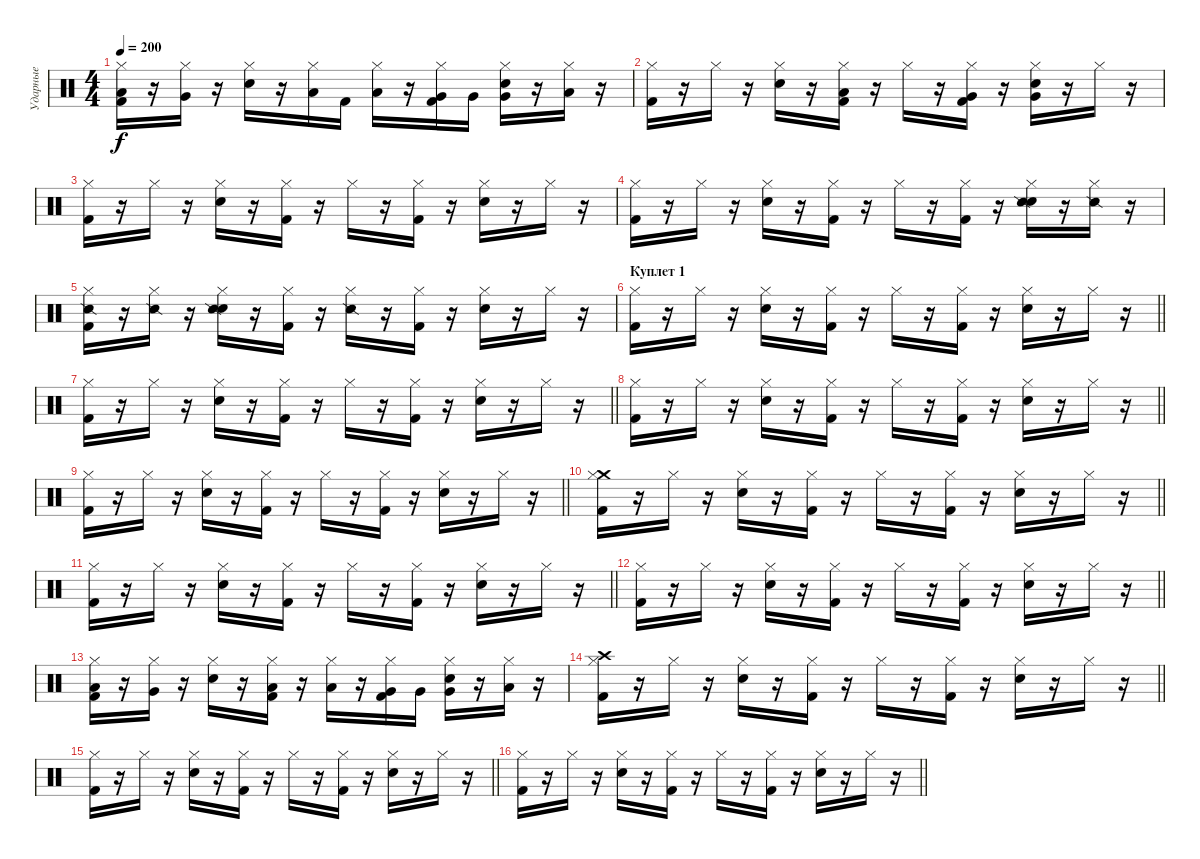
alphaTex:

\track ("Ударные" "Ударные") {instrument percussion}
\staff {score}
\articulation defaults
\ts (4 4)
\tempo 200
\clef neutral
\ks c
("Kick (hit) 2" "Low Floor Tom (hit)" "Hi-Hat (closed)").16{dy f} r.16 ("Very Low Tom (hit)" "Hi-Hat (closed)").16 r.16 ("Snare (hit) 2" "Hi-Hat (closed)").16 r.16 ("Low Floor Tom (hit)" "Hi-Hat (closed)").16 "Kick (hit) 2".16 ("Low Floor Tom (hit)" "Hi-Hat (closed)").16 r.16 ("Kick (hit) 2" "Very Low Tom (hit)" "Hi-Hat (closed)").16 "Very Low Tom (hit)".16 ("Snare (hit) 2" "Very Low Tom (hit)" "Hi-Hat (closed)").16 r.16 ("Low Tom (hit)" "Hi-Hat (closed)").16 r.16 |
("Kick (hit) 2" "Hi-Hat (closed)").16 r.16 "Hi-Hat (closed)".16 r.16 ("Snare (hit) 2" "Hi-Hat (closed)").16 r.16 ("Kick (hit) 2" "Low Floor Tom (hit)" "Hi-Hat (closed)").16 r.16 "Hi-Hat (closed)".16 r.16 ("Kick (hit) 2" "Very Low Tom (hit)" "Hi-Hat (closed)").16 r.16 ("Snare (hit) 2" "Very Low Tom (hit)" "Hi-Hat (closed)").16 r.16 "Hi-Hat (closed)".16 r.16 |
("Kick (hit) 2" "Hi-Hat (closed)").16 r.16 "Hi-Hat (closed)".16 r.16 ("Snare (hit) 2" "Hi-Hat (closed)").16 r.16 ("Kick (hit) 2" "Hi-Hat (closed)").16 r.16 "Hi-Hat (closed)".16 r.16 ("Kick (hit) 2" "Hi-Hat (closed)").16 r.16 ("Snare (hit) 2" "Hi-Hat (closed)").16 r.16 "Hi-Hat (closed)".16 r.16 |
("Kick (hit) 2" "Hi-Hat (closed)").16 r.16 "Hi-Hat (closed)".16 r.16 ("Snare (hit) 2" "Hi-Hat (closed)").16 r.16 ("Kick (hit) 2" "Hi-Hat (closed)").16 r.16 "Hi-Hat (closed)".16 r.16 ("Kick (hit) 2" "Hi-Hat (closed)").16 r.16 ("Snare (hit) 2" "Snare (side stick) 2" "Hi-Hat (closed)").16 r.16 ("Snare (side stick) 2" "Hi-Hat (closed)").16 r.16 |
("Kick (hit) 2" "Snare (side stick) 2" "Hi-Hat (closed)").16 r.16 ("Snare (side stick) 2" "Hi-Hat (closed)").16 r.16 ("Snare (hit) 2" "Snare (side stick) 2" "Hi-Hat (closed)").16 r.16 ("Kick (hit) 2" "Hi-Hat (closed)").16 r.16 ("Snare (side stick) 2" "Hi-Hat (closed)").16 r.16 ("Kick (hit) 2" "Hi-Hat (closed)").16 r.16 ("Snare (hit) 2" "Hi-Hat (closed)").16 r.16 "Hi-Hat (closed)".16 r.16 |
\section ("" "Куплет 1")
\barLineRight lightlight
("Kick (hit) 2" "Hi-Hat (closed)").16 r.16 "Hi-Hat (closed)".16 r.16 ("Snare (hit) 2" "Hi-Hat (closed)").16 r.16 ("Kick (hit) 2" "Hi-Hat (closed)").16 r.16 "Hi-Hat (closed)".16 r.16 ("Kick (hit) 2" "Hi-Hat (closed)").16 r.16 ("Snare (hit) 2" "Hi-Hat (closed)").16 r.16 "Hi-Hat (closed)".16 r.16 |
\barLineRight lightlight
("Kick (hit) 2" "Hi-Hat (closed)").16 r.16 "Hi-Hat (closed)".16 r.16 ("Snare (hit) 2" "Hi-Hat (closed)").16 r.16 ("Kick (hit) 2" "Hi-Hat (closed)").16 r.16 "Hi-Hat (closed)".16 r.16 ("Kick (hit) 2" "Hi-Hat (closed)").16 r.16 ("Snare (hit) 2" "Hi-Hat (closed)").16 r.16 "Hi-Hat (closed)".16 r.16 |
\barLineRight lightlight
("Kick (hit) 2" "Hi-Hat (closed)").16 r.16 "Hi-Hat (closed)".16 r.16 ("Snare (hit) 2" "Hi-Hat (closed)").16 r.16 ("Kick (hit) 2" "Hi-Hat (closed)").16 r.16 "Hi-Hat (closed)".16 r.16 ("Kick (hit) 2" "Hi-Hat (closed)").16 r.16 ("Snare (hit) 2" "Hi-Hat (closed)").16 r.16 "Hi-Hat (closed)".16 r.16 |
\barLineRight lightlight
("Kick (hit) 2" "Hi-Hat (closed)").16 r.16 "Hi-Hat (closed)".16 r.16 ("Snare (hit) 2" "Hi-Hat (closed)").16 r.16 ("Kick (hit) 2" "Hi-Hat (closed)").16 r.16 "Hi-Hat (closed)".16 r.16 ("Kick (hit) 2" "Hi-Hat (closed)").16 r.16 ("Snare (hit) 2" "Hi-Hat (closed)").16 r.16 "Hi-Hat (closed)".16 r.16 |
\barLineRight lightlight
("Kick (hit) 2" "Crash medium (hit)" "Hi-Hat (closed)").16 r.16 "Hi-Hat (closed)".16 r.16 ("Snare (hit) 2" "Hi-Hat (closed)").16 r.16 ("Kick (hit) 2" "Hi-Hat (closed)").16 r.16 "Hi-Hat (closed)".16 r.16 ("Kick (hit) 2" "Hi-Hat (closed)").16 r.16 ("Snare (hit) 2" "Hi-Hat (closed)").16 r.16 "Hi-Hat (closed)".16 r.16 |
\barLineRight lightlight
("Kick (hit) 2" "Hi-Hat (closed)").16 r.16 "Hi-Hat (closed)".16 r.16 ("Snare (hit) 2" "Hi-Hat (closed)").16 r.16 ("Kick (hit) 2" "Hi-Hat (closed)").16 r.16 "Hi-Hat (closed)".16 r.16 ("Kick (hit) 2" "Hi-Hat (closed)").16 r.16 ("Snare (hit) 2" "Hi-Hat (closed)").16 r.16 "Hi-Hat (closed)".16 r.16 |
\barLineRight lightlight
("Kick (hit) 2" "Hi-Hat (closed)").16 r.16 "Hi-Hat (closed)".16 r.16 ("Snare (hit) 2" "Hi-Hat (closed)").16 r.16 ("Kick (hit) 2" "Hi-Hat (closed)").16 r.16 "Hi-Hat (closed)".16 r.16 ("Kick (hit) 2" "Hi-Hat (closed)").16 r.16 ("Snare (hit) 2" "Hi-Hat (closed)").16 r.16 "Hi-Hat (closed)".16 r.16 |
("Kick (hit) 2" "Low Floor Tom (hit)" "Hi-Hat (closed)").16 r.16 ("Very Low Tom (hit)" "Hi-Hat (closed)").16 r.16 ("Snare (hit) 2" "Hi-Hat (closed)").16 r.16 ("Kick (hit) 2" "Low Floor Tom (hit)" "Hi-Hat (closed)").16 r.16 ("Low Floor Tom (hit)" "Hi-Hat (closed)").16 r.16 ("Kick (hit) 2" "Very Low Tom (hit)" "Hi-Hat (closed)").16 "Very Low Tom (hit)".16 ("Snare (hit) 2" "Very Low Tom (hit)" "Hi-Hat (closed)").16 r.16 ("Low Tom (hit)" "Hi-Hat (closed)").16 r.16 |
\barLineRight lightlight
("Kick (hit) 2" "Crash high (hit)" "Hi-Hat (closed)").16 r.16 "Hi-Hat (closed)".16 r.16 ("Snare (hit) 2" "Hi-Hat (closed)").16 r.16 ("Kick (hit) 2" "Hi-Hat (closed)").16 r.16 "Hi-Hat (closed)".16 r.16 ("Kick (hit) 2" "Hi-Hat (closed)").16 r.16 ("Snare (hit) 2" "Hi-Hat (closed)").16 r.16 "Hi-Hat (closed)".16 r.16 |
\barLineRight lightlight
("Kick (hit) 2" "Hi-Hat (closed)").16 r.16 "Hi-Hat (closed)".16 r.16 ("Snare (hit) 2" "Hi-Hat (closed)").16 r.16 ("Kick (hit) 2" "Hi-Hat (closed)").16 r.16 "Hi-Hat (closed)".16 r.16 ("Kick (hit) 2" "Hi-Hat (closed)").16 r.16 ("Snare (hit) 2" "Hi-Hat (closed)").16 r.16 "Hi-Hat (closed)".16 r.16 |
\barLineRight lightlight
("Kick (hit) 2" "Hi-Hat (closed)").16 r.16 "Hi-Hat (closed)".16 r.16 ("Snare (hit) 2" "Hi-Hat (closed)").16 r.16 ("Kick (hit) 2" "Hi-Hat (closed)").16 r.16 "Hi-Hat (closed)".16 r.16 ("Kick (hit) 2" "Hi-Hat (closed)").16 r.16 ("Snare (hit) 2" "Hi-Hat (closed)").16 r.16 "Hi-Hat (closed)".16 r.16
